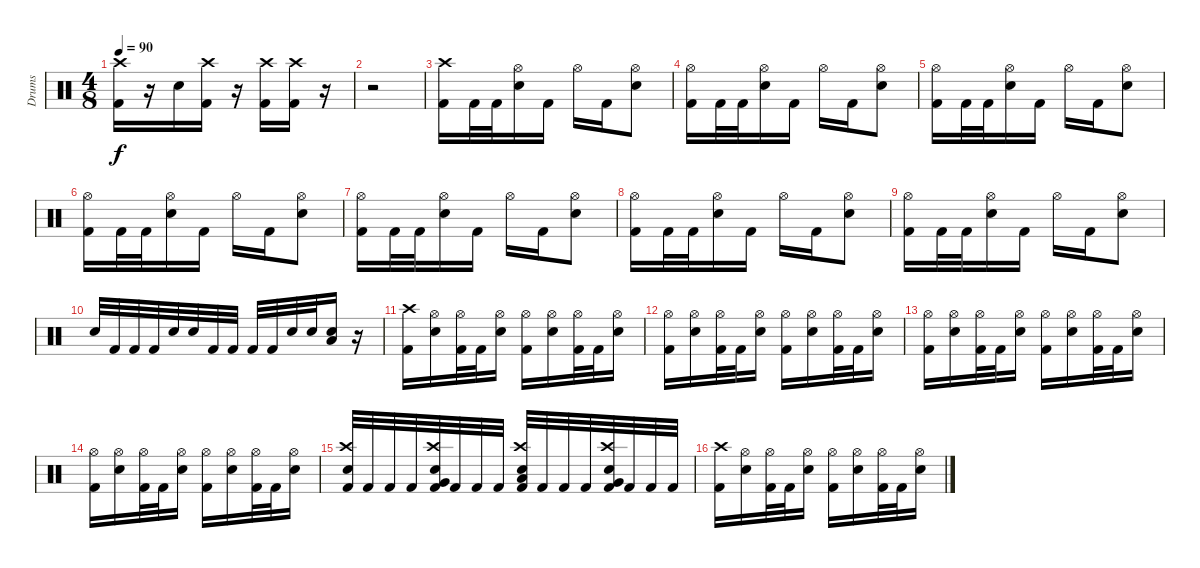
\track ("Drums" "Drums") {instrument percussion}
\staff {score}
\articulation defaults
\ts (4 8)
\tempo 90
\clef neutral
\ks c
("Kick (hit) 2" "Crash high (hit)").16{dy f} r.16 "Electric Snare (hit)".16 ("Kick (hit) 2" "Crash high (hit)").16 r.16 ("Kick (hit) 2" "Crash high (hit)").16 ("Kick (hit) 2" "Crash high (hit)").16 r.16 |
r.2 |
("Crash high (hit)" "Kick (hit) 2").16 "Kick (hit) 2".32 "Kick (hit) 2".32 ("Hi-Hat (open)" "Electric Snare (hit)").16 "Kick (hit) 2".16 "Hi-Hat (open)".16 "Kick (hit) 2".16 ("Electric Snare (hit)" "Hi-Hat (open)").8 |
("Kick (hit) 2" "Hi-Hat (open)").16 "Kick (hit) 2".32 "Kick (hit) 2".32 ("Hi-Hat (open)" "Electric Snare (hit)").16 "Kick (hit) 2".16 "Hi-Hat (open)".16 "Kick (hit) 2".16 ("Electric Snare (hit)" "Hi-Hat (open)").8 |
("Kick (hit) 2" "Hi-Hat (open)").16 "Kick (hit) 2".32 "Kick (hit) 2".32 ("Hi-Hat (open)" "Electric Snare (hit)").16 "Kick (hit) 2".16 "Hi-Hat (open)".16 "Kick (hit) 2".16 ("Electric Snare (hit)" "Hi-Hat (open)").8 |
("Kick (hit) 2" "Hi-Hat (open)").16 "Kick (hit) 2".32 "Kick (hit) 2".32 ("Hi-Hat (open)" "Electric Snare (hit)").16 "Kick (hit) 2".16 "Hi-Hat (open)".16 "Kick (hit) 2".16 ("Electric Snare (hit)" "Hi-Hat (open)").8 |
("Kick (hit) 2" "Hi-Hat (open)").16 "Kick (hit) 2".32 "Kick (hit) 2".32 ("Hi-Hat (open)" "Electric Snare (hit)").16 "Kick (hit) 2".16 "Hi-Hat (open)".16 "Kick (hit) 2".16 ("Electric Snare (hit)" "Hi-Hat (open)").8 |
("Kick (hit) 2" "Hi-Hat (open)").16 "Kick (hit) 2".32 "Kick (hit) 2".32 ("Hi-Hat (open)" "Electric Snare (hit)").16 "Kick (hit) 2".16 "Hi-Hat (open)".16 "Kick (hit) 2".16 ("Electric Snare (hit)" "Hi-Hat (open)").8 |
("Kick (hit) 2" "Hi-Hat (open)").16 "Kick (hit) 2".32 "Kick (hit) 2".32 ("Hi-Hat (open)" "Electric Snare (hit)").16 "Kick (hit) 2".16 "Hi-Hat (open)".16 "Kick (hit) 2".16 ("Electric Snare (hit)" "Hi-Hat (open)").8 |
"Electric Snare (hit)".32 "Kick (hit) 2".32 "Kick (hit) 2".32 "Kick (hit) 2".32 "Electric Snare (hit)".32 "Electric Snare (hit)".32 "Kick (hit) 2".32 "Kick (hit) 2".32 "Kick (hit) 2".32 "Kick (hit) 2".32 "Electric Snare (hit)".32 "Electric Snare (hit)".32 ("Electric Snare (hit)" "Low Floor Tom (hit)").16 r.16 |
("Kick (hit) 2" "Crash high (hit)").16 ("Electric Snare (hit)" "Hi-Hat (open)").16 ("Kick (hit) 2" "Hi-Hat (open)").32 "Kick (hit) 2".32 ("Electric Snare (hit)" "Hi-Hat (open)").16 ("Kick (hit) 2" "Hi-Hat (open)").16 ("Electric Snare (hit)" "Hi-Hat (open)").16 ("Kick (hit) 2" "Hi-Hat (open)").32 "Kick (hit) 2".32 ("Electric Snare (hit)" "Hi-Hat (open)").16 |
("Kick (hit) 2" "Hi-Hat (open)").16 ("Electric Snare (hit)" "Hi-Hat (open)").16 ("Kick (hit) 2" "Hi-Hat (open)").32 "Kick (hit) 2".32 ("Electric Snare (hit)" "Hi-Hat (open)").16 ("Kick (hit) 2" "Hi-Hat (open)").16 ("Electric Snare (hit)" "Hi-Hat (open)").16 ("Kick (hit) 2" "Hi-Hat (open)").32 "Kick (hit) 2".32 ("Electric Snare (hit)" "Hi-Hat (open)").16 |
("Kick (hit) 2" "Hi-Hat (open)").16 ("Electric Snare (hit)" "Hi-Hat (open)").16 ("Kick (hit) 2" "Hi-Hat (open)").32 "Kick (hit) 2".32 ("Electric Snare (hit)" "Hi-Hat (open)").16 ("Kick (hit) 2" "Hi-Hat (open)").16 ("Electric Snare (hit)" "Hi-Hat (open)").16 ("Kick (hit) 2" "Hi-Hat (open)").32 "Kick (hit) 2".32 ("Electric Snare (hit)" "Hi-Hat (open)").16 |
("Kick (hit) 2" "Hi-Hat (open)").16 ("Electric Snare (hit)" "Hi-Hat (open)").16 ("Kick (hit) 2" "Hi-Hat (open)").32 "Kick (hit) 2".32 ("Electric Snare (hit)" "Hi-Hat (open)").16 ("Kick (hit) 2" "Hi-Hat (open)").16 ("Electric Snare (hit)" "Hi-Hat (open)").16 ("Kick (hit) 2" "Hi-Hat (open)").32 "Kick (hit) 2".32 ("Electric Snare (hit)" "Hi-Hat (open)").16 |
("Kick (hit) 2" "Electric Snare (hit)" "Crash high (hit)").32 "Kick (hit) 2".32 "Kick (hit) 2".32 "Kick (hit) 2".32 ("Electric Snare (hit)" "Very Low Tom (hit)" "Kick (hit) 2" "Crash high (hit)").32 "Kick (hit) 2".32 "Kick (hit) 2".32 "Kick (hit) 2".32 ("Electric Snare (hit)" "Low Floor Tom (hit)" "Kick (hit) 2" "Crash high (hit)").32 "Kick (hit) 2".32 "Kick (hit) 2".32 "Kick (hit) 2".32 ("Electric Snare (hit)" "Very Low Tom (hit)" "Kick (hit) 2" "Crash high (hit)").32 "Kick (hit) 2".32 "Kick (hit) 2".32 "Kick (hit) 2".32 |
("Kick (hit) 2" "Crash high (hit)").16 ("Electric Snare (hit)" "Hi-Hat (open)").16 ("Kick (hit) 2" "Hi-Hat (open)").32 "Kick (hit) 2".32 ("Electric Snare (hit)" "Hi-Hat (open)").16 ("Kick (hit) 2" "Hi-Hat (open)").16 ("Electric Snare (hit)" "Hi-Hat (open)").16 ("Kick (hit) 2" "Hi-Hat (open)").32 "Kick (hit) 2".32 ("Electric Snare (hit)" "Hi-Hat (open)").16
